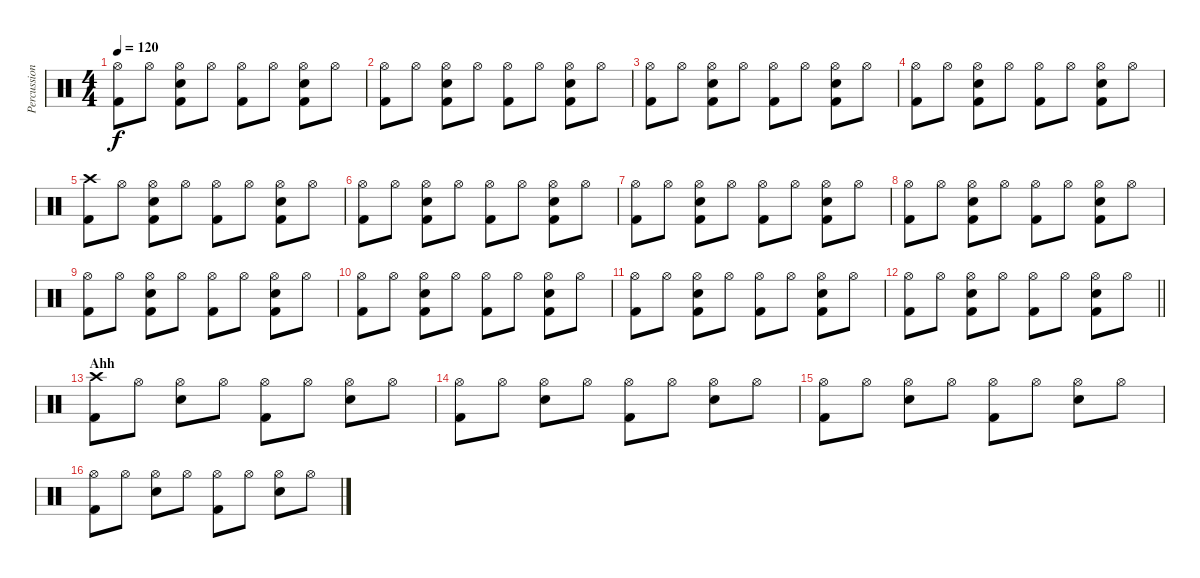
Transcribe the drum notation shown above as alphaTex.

\track ("Percussion" "Percussion") {instrument percussion}
\staff {score}
\articulation defaults
\ts (4 4)
\tempo 120
\clef neutral
\ks c
("Hi-Hat (open)" "Kick (hit) 2").8{dy f} "Hi-Hat (open)".8 ("Hi-Hat (open)" "Snare (hit) 2" "Kick (hit) 2").8 "Hi-Hat (open)".8 ("Hi-Hat (open)" "Kick (hit) 2").8 "Hi-Hat (open)".8 ("Hi-Hat (open)" "Snare (hit) 2" "Kick (hit) 2").8 "Hi-Hat (open)".8 |
("Hi-Hat (open)" "Kick (hit) 2").8 "Hi-Hat (open)".8 ("Hi-Hat (open)" "Snare (hit) 2" "Kick (hit) 2").8 "Hi-Hat (open)".8 ("Hi-Hat (open)" "Kick (hit) 2").8 "Hi-Hat (open)".8 ("Hi-Hat (open)" "Snare (hit) 2" "Kick (hit) 2").8 "Hi-Hat (open)".8 |
("Hi-Hat (open)" "Kick (hit) 2").8 "Hi-Hat (open)".8 ("Hi-Hat (open)" "Snare (hit) 2" "Kick (hit) 2").8 "Hi-Hat (open)".8 ("Hi-Hat (open)" "Kick (hit) 2").8 "Hi-Hat (open)".8 ("Hi-Hat (open)" "Snare (hit) 2" "Kick (hit) 2").8 "Hi-Hat (open)".8 |
("Hi-Hat (open)" "Kick (hit) 2").8 "Hi-Hat (open)".8 ("Hi-Hat (open)" "Snare (hit) 2" "Kick (hit) 2").8 "Hi-Hat (open)".8 ("Hi-Hat (open)" "Kick (hit) 2").8 "Hi-Hat (open)".8 ("Hi-Hat (open)" "Snare (hit) 2" "Kick (hit) 2").8 "Hi-Hat (open)".8 |
("Crash high (hit)" "Kick (hit) 2").8 "Hi-Hat (open)".8 ("Hi-Hat (open)" "Snare (hit) 2" "Kick (hit) 2").8 "Hi-Hat (open)".8 ("Hi-Hat (open)" "Kick (hit) 2").8 "Hi-Hat (open)".8 ("Hi-Hat (open)" "Snare (hit) 2" "Kick (hit) 2").8 "Hi-Hat (open)".8 |
("Hi-Hat (open)" "Kick (hit) 2").8 "Hi-Hat (open)".8 ("Hi-Hat (open)" "Snare (hit) 2" "Kick (hit) 2").8 "Hi-Hat (open)".8 ("Hi-Hat (open)" "Kick (hit) 2").8 "Hi-Hat (open)".8 ("Hi-Hat (open)" "Snare (hit) 2" "Kick (hit) 2").8 "Hi-Hat (open)".8 |
("Hi-Hat (open)" "Kick (hit) 2").8 "Hi-Hat (open)".8 ("Hi-Hat (open)" "Snare (hit) 2" "Kick (hit) 2").8 "Hi-Hat (open)".8 ("Hi-Hat (open)" "Kick (hit) 2").8 "Hi-Hat (open)".8 ("Hi-Hat (open)" "Snare (hit) 2" "Kick (hit) 2").8 "Hi-Hat (open)".8 |
("Hi-Hat (open)" "Kick (hit) 2").8 "Hi-Hat (open)".8 ("Hi-Hat (open)" "Snare (hit) 2" "Kick (hit) 2").8 "Hi-Hat (open)".8 ("Hi-Hat (open)" "Kick (hit) 2").8 "Hi-Hat (open)".8 ("Hi-Hat (open)" "Snare (hit) 2" "Kick (hit) 2").8 "Hi-Hat (open)".8 |
("Hi-Hat (open)" "Kick (hit) 2").8 "Hi-Hat (open)".8 ("Hi-Hat (open)" "Snare (hit) 2" "Kick (hit) 2").8 "Hi-Hat (open)".8 ("Hi-Hat (open)" "Kick (hit) 2").8 "Hi-Hat (open)".8 ("Hi-Hat (open)" "Snare (hit) 2" "Kick (hit) 2").8 "Hi-Hat (open)".8 |
("Hi-Hat (open)" "Kick (hit) 2").8 "Hi-Hat (open)".8 ("Hi-Hat (open)" "Snare (hit) 2" "Kick (hit) 2").8 "Hi-Hat (open)".8 ("Hi-Hat (open)" "Kick (hit) 2").8 "Hi-Hat (open)".8 ("Hi-Hat (open)" "Snare (hit) 2" "Kick (hit) 2").8 "Hi-Hat (open)".8 |
("Hi-Hat (open)" "Kick (hit) 2").8 "Hi-Hat (open)".8 ("Hi-Hat (open)" "Snare (hit) 2" "Kick (hit) 2").8 "Hi-Hat (open)".8 ("Hi-Hat (open)" "Kick (hit) 2").8 "Hi-Hat (open)".8 ("Hi-Hat (open)" "Snare (hit) 2" "Kick (hit) 2").8 "Hi-Hat (open)".8 |
\barLineRight lightlight
("Hi-Hat (open)" "Kick (hit) 2").8 "Hi-Hat (open)".8 ("Hi-Hat (open)" "Snare (hit) 2" "Kick (hit) 2").8 "Hi-Hat (open)".8 ("Hi-Hat (open)" "Kick (hit) 2").8 "Hi-Hat (open)".8 ("Hi-Hat (open)" "Snare (hit) 2" "Kick (hit) 2").8 "Hi-Hat (open)".8 |
\section ("" "Ahh")
("Crash high (hit)" "Kick (hit) 2").8 "Hi-Hat (open)".8 ("Hi-Hat (open)" "Snare (hit) 2").8 "Hi-Hat (open)".8 ("Hi-Hat (open)" "Kick (hit) 2").8 "Hi-Hat (open)".8 ("Hi-Hat (open)" "Snare (hit) 2").8 "Hi-Hat (open)".8 |
("Hi-Hat (open)" "Kick (hit) 2").8 "Hi-Hat (open)".8 ("Hi-Hat (open)" "Snare (hit) 2").8 "Hi-Hat (open)".8 ("Hi-Hat (open)" "Kick (hit) 2").8 "Hi-Hat (open)".8 ("Hi-Hat (open)" "Snare (hit) 2").8 "Hi-Hat (open)".8 |
("Hi-Hat (open)" "Kick (hit) 2").8 "Hi-Hat (open)".8 ("Hi-Hat (open)" "Snare (hit) 2").8 "Hi-Hat (open)".8 ("Hi-Hat (open)" "Kick (hit) 2").8 "Hi-Hat (open)".8 ("Hi-Hat (open)" "Snare (hit) 2").8 "Hi-Hat (open)".8 |
("Hi-Hat (open)" "Kick (hit) 2").8 "Hi-Hat (open)".8 ("Hi-Hat (open)" "Snare (hit) 2").8 "Hi-Hat (open)".8 ("Hi-Hat (open)" "Kick (hit) 2").8 "Hi-Hat (open)".8 ("Hi-Hat (open)" "Snare (hit) 2").8 "Hi-Hat (open)".8
